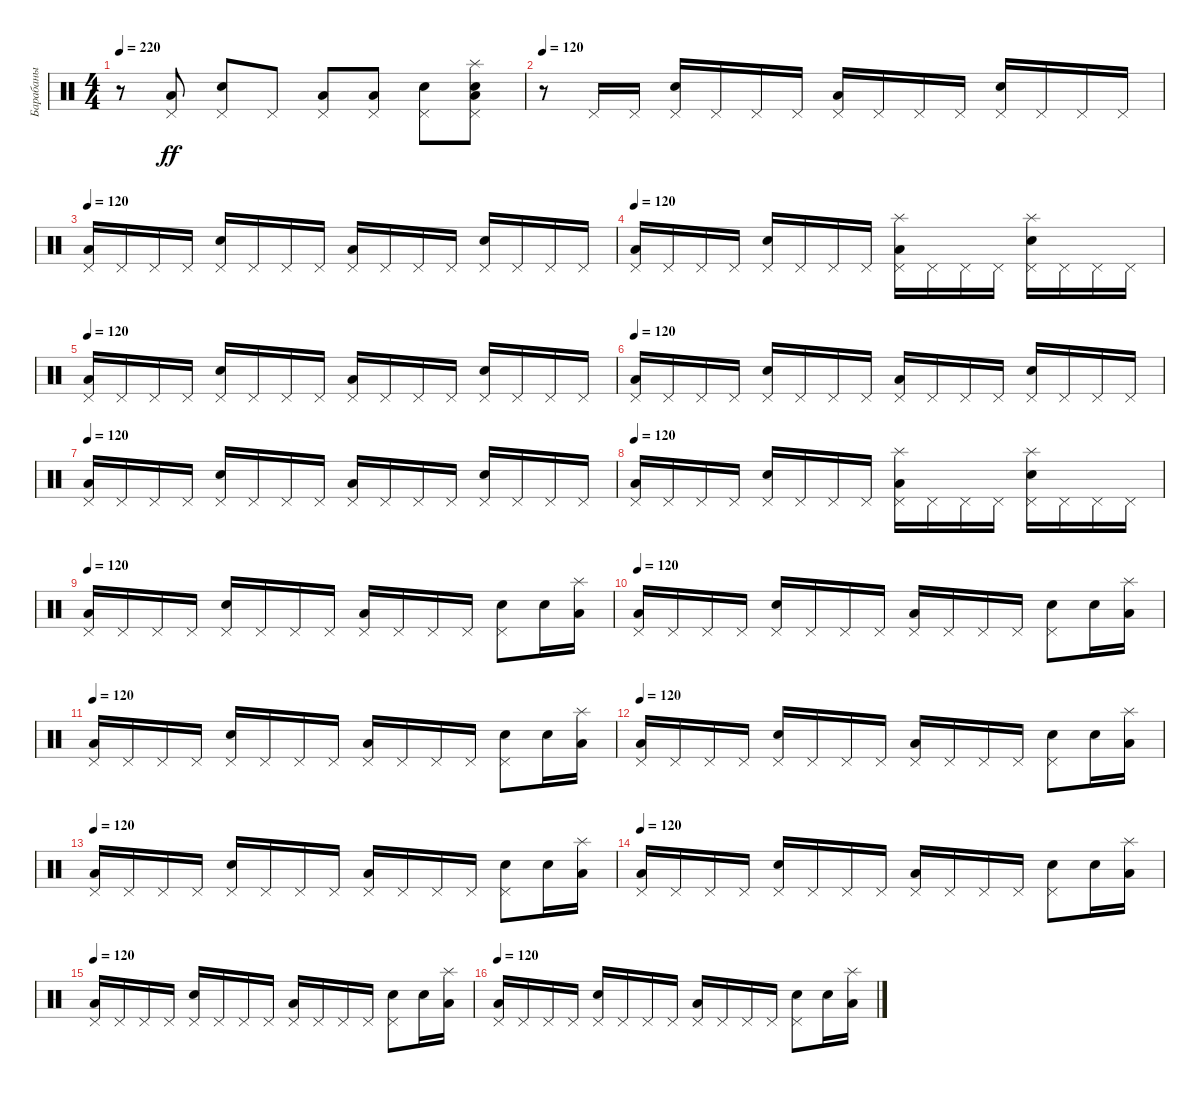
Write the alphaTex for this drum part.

\track ("Барабаны" "Барабаны") {instrument percussion}
\staff {score}
\articulation defaults
\ts (4 4)
\tempo 220
\clef neutral
\ks c
r.8{dy ff} ("Low Floor Tom (hit)" "Pedal Hi-Hat (hit)").8 ("Electric Snare (hit)" "Pedal Hi-Hat (hit)").8 "Pedal Hi-Hat (hit)".8 ("Low Floor Tom (hit)" "Pedal Hi-Hat (hit)").8 ("Low Floor Tom (hit)" "Pedal Hi-Hat (hit)").8 ("Electric Snare (hit)" "Pedal Hi-Hat (hit)").8 ("Electric Snare (hit)" "Low Floor Tom (hit)" "Pedal Hi-Hat (hit)" "Splash (hit)").8 |
\tempo 120
r.8 "Pedal Hi-Hat (hit)".16 "Pedal Hi-Hat (hit)".16 ("Electric Snare (hit)" "Pedal Hi-Hat (hit)").16 "Pedal Hi-Hat (hit)".16 "Pedal Hi-Hat (hit)".16 "Pedal Hi-Hat (hit)".16 ("Low Floor Tom (hit)" "Pedal Hi-Hat (hit)").16 "Pedal Hi-Hat (hit)".16 "Pedal Hi-Hat (hit)".16 "Pedal Hi-Hat (hit)".16 ("Electric Snare (hit)" "Pedal Hi-Hat (hit)").16 "Pedal Hi-Hat (hit)".16 "Pedal Hi-Hat (hit)".16 "Pedal Hi-Hat (hit)".16 |
\tempo 120
("Low Floor Tom (hit)" "Pedal Hi-Hat (hit)").16 "Pedal Hi-Hat (hit)".16 "Pedal Hi-Hat (hit)".16 "Pedal Hi-Hat (hit)".16 ("Electric Snare (hit)" "Pedal Hi-Hat (hit)").16 "Pedal Hi-Hat (hit)".16 "Pedal Hi-Hat (hit)".16 "Pedal Hi-Hat (hit)".16 ("Low Floor Tom (hit)" "Pedal Hi-Hat (hit)").16 "Pedal Hi-Hat (hit)".16 "Pedal Hi-Hat (hit)".16 "Pedal Hi-Hat (hit)".16 ("Electric Snare (hit)" "Pedal Hi-Hat (hit)").16 "Pedal Hi-Hat (hit)".16 "Pedal Hi-Hat (hit)".16 "Pedal Hi-Hat (hit)".16 |
\tempo 120
("Low Floor Tom (hit)" "Pedal Hi-Hat (hit)").16 "Pedal Hi-Hat (hit)".16 "Pedal Hi-Hat (hit)".16 "Pedal Hi-Hat (hit)".16 ("Electric Snare (hit)" "Pedal Hi-Hat (hit)").16 "Pedal Hi-Hat (hit)".16 "Pedal Hi-Hat (hit)".16 "Pedal Hi-Hat (hit)".16 ("Low Floor Tom (hit)" "Pedal Hi-Hat (hit)" "Splash (hit)").16 "Pedal Hi-Hat (hit)".16 "Pedal Hi-Hat (hit)".16 "Pedal Hi-Hat (hit)".16 ("Electric Snare (hit)" "Pedal Hi-Hat (hit)" "Splash (hit)").16 "Pedal Hi-Hat (hit)".16 "Pedal Hi-Hat (hit)".16 "Pedal Hi-Hat (hit)".16 |
\tempo 120
("Low Floor Tom (hit)" "Pedal Hi-Hat (hit)").16 "Pedal Hi-Hat (hit)".16 "Pedal Hi-Hat (hit)".16 "Pedal Hi-Hat (hit)".16 ("Electric Snare (hit)" "Pedal Hi-Hat (hit)").16 "Pedal Hi-Hat (hit)".16 "Pedal Hi-Hat (hit)".16 "Pedal Hi-Hat (hit)".16 ("Low Floor Tom (hit)" "Pedal Hi-Hat (hit)").16 "Pedal Hi-Hat (hit)".16 "Pedal Hi-Hat (hit)".16 "Pedal Hi-Hat (hit)".16 ("Electric Snare (hit)" "Pedal Hi-Hat (hit)").16 "Pedal Hi-Hat (hit)".16 "Pedal Hi-Hat (hit)".16 "Pedal Hi-Hat (hit)".16 |
\tempo 120
("Low Floor Tom (hit)" "Pedal Hi-Hat (hit)").16 "Pedal Hi-Hat (hit)".16 "Pedal Hi-Hat (hit)".16 "Pedal Hi-Hat (hit)".16 ("Electric Snare (hit)" "Pedal Hi-Hat (hit)").16 "Pedal Hi-Hat (hit)".16 "Pedal Hi-Hat (hit)".16 "Pedal Hi-Hat (hit)".16 ("Low Floor Tom (hit)" "Pedal Hi-Hat (hit)").16 "Pedal Hi-Hat (hit)".16 "Pedal Hi-Hat (hit)".16 "Pedal Hi-Hat (hit)".16 ("Electric Snare (hit)" "Pedal Hi-Hat (hit)").16 "Pedal Hi-Hat (hit)".16 "Pedal Hi-Hat (hit)".16 "Pedal Hi-Hat (hit)".16 |
\tempo 120
("Low Floor Tom (hit)" "Pedal Hi-Hat (hit)").16 "Pedal Hi-Hat (hit)".16 "Pedal Hi-Hat (hit)".16 "Pedal Hi-Hat (hit)".16 ("Electric Snare (hit)" "Pedal Hi-Hat (hit)").16 "Pedal Hi-Hat (hit)".16 "Pedal Hi-Hat (hit)".16 "Pedal Hi-Hat (hit)".16 ("Low Floor Tom (hit)" "Pedal Hi-Hat (hit)").16 "Pedal Hi-Hat (hit)".16 "Pedal Hi-Hat (hit)".16 "Pedal Hi-Hat (hit)".16 ("Electric Snare (hit)" "Pedal Hi-Hat (hit)").16 "Pedal Hi-Hat (hit)".16 "Pedal Hi-Hat (hit)".16 "Pedal Hi-Hat (hit)".16 |
\tempo 120
("Low Floor Tom (hit)" "Pedal Hi-Hat (hit)").16 "Pedal Hi-Hat (hit)".16 "Pedal Hi-Hat (hit)".16 "Pedal Hi-Hat (hit)".16 ("Electric Snare (hit)" "Pedal Hi-Hat (hit)").16 "Pedal Hi-Hat (hit)".16 "Pedal Hi-Hat (hit)".16 "Pedal Hi-Hat (hit)".16 ("Low Floor Tom (hit)" "Pedal Hi-Hat (hit)" "Splash (hit)").16 "Pedal Hi-Hat (hit)".16 "Pedal Hi-Hat (hit)".16 "Pedal Hi-Hat (hit)".16 ("Electric Snare (hit)" "Pedal Hi-Hat (hit)" "Splash (hit)").16 "Pedal Hi-Hat (hit)".16 "Pedal Hi-Hat (hit)".16 "Pedal Hi-Hat (hit)".16 |
\tempo 120
("Low Floor Tom (hit)" "Pedal Hi-Hat (hit)").16 "Pedal Hi-Hat (hit)".16 "Pedal Hi-Hat (hit)".16 "Pedal Hi-Hat (hit)".16 ("Electric Snare (hit)" "Pedal Hi-Hat (hit)").16 "Pedal Hi-Hat (hit)".16 "Pedal Hi-Hat (hit)".16 "Pedal Hi-Hat (hit)".16 ("Low Floor Tom (hit)" "Pedal Hi-Hat (hit)").16 "Pedal Hi-Hat (hit)".16 "Pedal Hi-Hat (hit)".16 "Pedal Hi-Hat (hit)".16 ("Electric Snare (hit)" "Pedal Hi-Hat (hit)").8 "Electric Snare (hit)".16 ("Low Floor Tom (hit)" "Splash (hit)").16 |
\tempo 120
("Low Floor Tom (hit)" "Pedal Hi-Hat (hit)").16 "Pedal Hi-Hat (hit)".16 "Pedal Hi-Hat (hit)".16 "Pedal Hi-Hat (hit)".16 ("Electric Snare (hit)" "Pedal Hi-Hat (hit)").16 "Pedal Hi-Hat (hit)".16 "Pedal Hi-Hat (hit)".16 "Pedal Hi-Hat (hit)".16 ("Low Floor Tom (hit)" "Pedal Hi-Hat (hit)").16 "Pedal Hi-Hat (hit)".16 "Pedal Hi-Hat (hit)".16 "Pedal Hi-Hat (hit)".16 ("Electric Snare (hit)" "Pedal Hi-Hat (hit)").8 "Electric Snare (hit)".16 ("Low Floor Tom (hit)" "Splash (hit)").16 |
\tempo 120
("Low Floor Tom (hit)" "Pedal Hi-Hat (hit)").16 "Pedal Hi-Hat (hit)".16 "Pedal Hi-Hat (hit)".16 "Pedal Hi-Hat (hit)".16 ("Electric Snare (hit)" "Pedal Hi-Hat (hit)").16 "Pedal Hi-Hat (hit)".16 "Pedal Hi-Hat (hit)".16 "Pedal Hi-Hat (hit)".16 ("Low Floor Tom (hit)" "Pedal Hi-Hat (hit)").16 "Pedal Hi-Hat (hit)".16 "Pedal Hi-Hat (hit)".16 "Pedal Hi-Hat (hit)".16 ("Electric Snare (hit)" "Pedal Hi-Hat (hit)").8 "Electric Snare (hit)".16 ("Low Floor Tom (hit)" "Splash (hit)").16 |
\tempo 120
("Low Floor Tom (hit)" "Pedal Hi-Hat (hit)").16 "Pedal Hi-Hat (hit)".16 "Pedal Hi-Hat (hit)".16 "Pedal Hi-Hat (hit)".16 ("Electric Snare (hit)" "Pedal Hi-Hat (hit)").16 "Pedal Hi-Hat (hit)".16 "Pedal Hi-Hat (hit)".16 "Pedal Hi-Hat (hit)".16 ("Low Floor Tom (hit)" "Pedal Hi-Hat (hit)").16 "Pedal Hi-Hat (hit)".16 "Pedal Hi-Hat (hit)".16 "Pedal Hi-Hat (hit)".16 ("Electric Snare (hit)" "Pedal Hi-Hat (hit)").8 "Electric Snare (hit)".16 ("Low Floor Tom (hit)" "Splash (hit)").16 |
\tempo 120
("Low Floor Tom (hit)" "Pedal Hi-Hat (hit)").16 "Pedal Hi-Hat (hit)".16 "Pedal Hi-Hat (hit)".16 "Pedal Hi-Hat (hit)".16 ("Electric Snare (hit)" "Pedal Hi-Hat (hit)").16 "Pedal Hi-Hat (hit)".16 "Pedal Hi-Hat (hit)".16 "Pedal Hi-Hat (hit)".16 ("Low Floor Tom (hit)" "Pedal Hi-Hat (hit)").16 "Pedal Hi-Hat (hit)".16 "Pedal Hi-Hat (hit)".16 "Pedal Hi-Hat (hit)".16 ("Electric Snare (hit)" "Pedal Hi-Hat (hit)").8 "Electric Snare (hit)".16 ("Low Floor Tom (hit)" "Splash (hit)").16 |
\tempo 120
("Low Floor Tom (hit)" "Pedal Hi-Hat (hit)").16 "Pedal Hi-Hat (hit)".16 "Pedal Hi-Hat (hit)".16 "Pedal Hi-Hat (hit)".16 ("Electric Snare (hit)" "Pedal Hi-Hat (hit)").16 "Pedal Hi-Hat (hit)".16 "Pedal Hi-Hat (hit)".16 "Pedal Hi-Hat (hit)".16 ("Low Floor Tom (hit)" "Pedal Hi-Hat (hit)").16 "Pedal Hi-Hat (hit)".16 "Pedal Hi-Hat (hit)".16 "Pedal Hi-Hat (hit)".16 ("Electric Snare (hit)" "Pedal Hi-Hat (hit)").8 "Electric Snare (hit)".16 ("Low Floor Tom (hit)" "Splash (hit)").16 |
\tempo 120
("Low Floor Tom (hit)" "Pedal Hi-Hat (hit)").16 "Pedal Hi-Hat (hit)".16 "Pedal Hi-Hat (hit)".16 "Pedal Hi-Hat (hit)".16 ("Electric Snare (hit)" "Pedal Hi-Hat (hit)").16 "Pedal Hi-Hat (hit)".16 "Pedal Hi-Hat (hit)".16 "Pedal Hi-Hat (hit)".16 ("Low Floor Tom (hit)" "Pedal Hi-Hat (hit)").16 "Pedal Hi-Hat (hit)".16 "Pedal Hi-Hat (hit)".16 "Pedal Hi-Hat (hit)".16 ("Electric Snare (hit)" "Pedal Hi-Hat (hit)").8 "Electric Snare (hit)".16 ("Low Floor Tom (hit)" "Splash (hit)").16 |
\tempo 120
("Low Floor Tom (hit)" "Pedal Hi-Hat (hit)").16 "Pedal Hi-Hat (hit)".16 "Pedal Hi-Hat (hit)".16 "Pedal Hi-Hat (hit)".16 ("Electric Snare (hit)" "Pedal Hi-Hat (hit)").16 "Pedal Hi-Hat (hit)".16 "Pedal Hi-Hat (hit)".16 "Pedal Hi-Hat (hit)".16 ("Low Floor Tom (hit)" "Pedal Hi-Hat (hit)").16 "Pedal Hi-Hat (hit)".16 "Pedal Hi-Hat (hit)".16 "Pedal Hi-Hat (hit)".16 ("Electric Snare (hit)" "Pedal Hi-Hat (hit)").8 "Electric Snare (hit)".16 ("Low Floor Tom (hit)" "Splash (hit)").16
